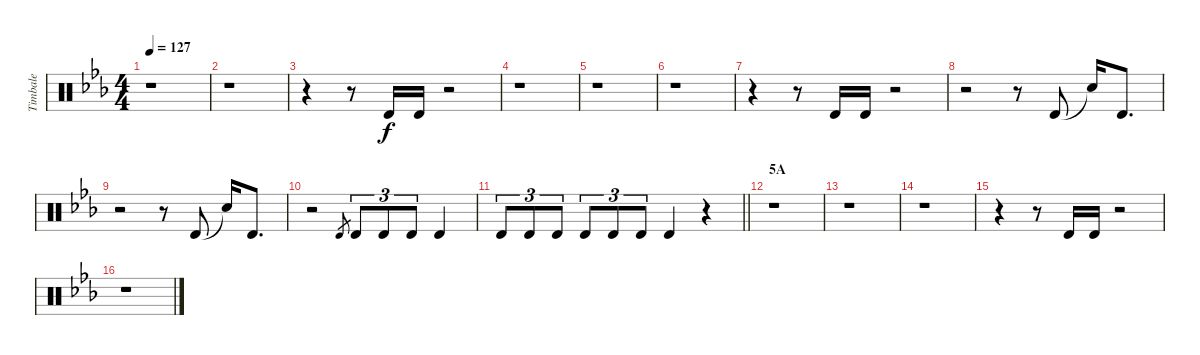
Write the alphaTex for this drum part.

\track ("Timbale" "Timbale") {instrument percussion}
\staff {score}
\articulation defaults
\ts (4 4)
\tempo 127
\clef neutral
\ks eb
r.1{dy f} |
r.1 |
r.4 r.8 "Timbale high (hit)".16 "Timbale high (hit)".16 r.2 |
r.1 |
r.1 |
r.1 |
r.4 r.8 "Timbale high (hit)".16 "Timbale high (hit)".16 r.2 |
r.2 r.8 "Timbale high (hit)".8 "Snare (hit)"{t}.16 "Timbale high (hit)".8{d} |
r.2 r.8 "Timbale high (hit)".8 "Snare (hit)"{t}.16 "Timbale high (hit)".8{d} |
r.2 "Timbale high (hit)".8{gr} "Timbale high (hit)".8{tu (3 2)} "Timbale high (hit)".8{tu (3 2)} "Timbale high (hit)".8{tu (3 2)} "Timbale high (hit)".4 |
\barLineRight lightlight "Timbale high (hit)".8{tu (3 2)} "Timbale high (hit)".8{tu (3 2)} "Timbale high (hit)".8{tu (3 2)} "Timbale high (hit)".8{tu (3 2)} "Timbale high (hit)".8{tu (3 2)} "Timbale high (hit)".8{tu (3 2)} "Timbale high (hit)".4
r.4 |
\section ("" "5A")
r.1 |
r.1 |
r.1 |
r.4 r.8 "Timbale high (hit)".16 "Timbale high (hit)".16 r.2 |
r.1
